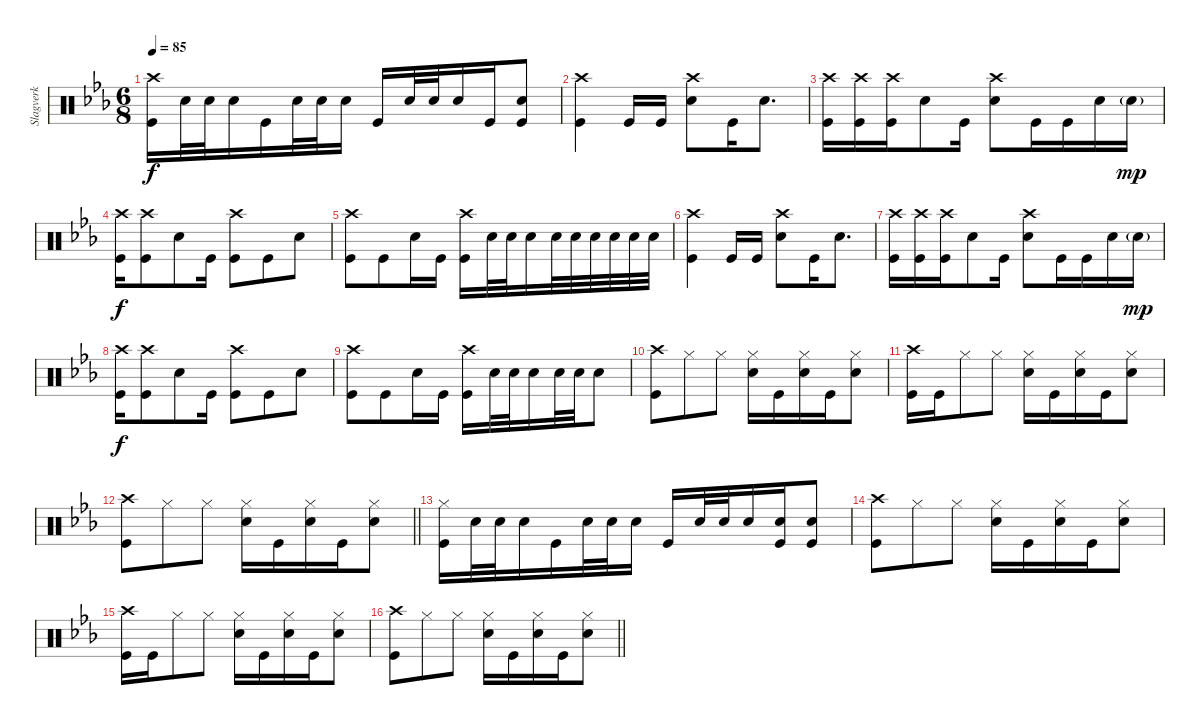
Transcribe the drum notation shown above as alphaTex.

\track ("Slagverk" "Slagverk") {instrument percussion}
\staff {score}
\articulation defaults
\ts (6 8)
\tempo 85
\clef neutral
\ks eb
("Crash high (hit)" "Kick (hit)").16{dy f} "Snare (hit) 2".32 "Snare (hit) 2".32 "Snare (hit) 2".16 "Kick (hit)".16 "Snare (hit) 2".32 "Snare (hit) 2".32 "Snare (hit) 2".16 "Kick (hit)".16 "Snare (hit) 2".32 "Snare (hit) 2".32 "Snare (hit) 2".16 "Kick (hit)".16 ("Snare (hit) 2" "Kick (hit)").8 |
("Crash high (hit)" "Kick (hit)").4 "Kick (hit)".16 "Kick (hit)".16 ("Crash high (hit)" "Snare (hit) 2").8 "Kick (hit)".16 "Snare (hit) 2".8{d} |
("Crash high (hit)" "Kick (hit)").16 ("Crash high (hit)" "Kick (hit)").16 ("Crash high (hit)" "Kick (hit)").16 "Snare (hit) 2".8 "Kick (hit)".16 ("Crash high (hit)" "Snare (hit) 2").8 "Kick (hit)".16 "Kick (hit)".16 "Snare (hit) 2".16 "Snare (hit) 2"{g}.16{dy mp} |
("Crash high (hit)" "Kick (hit)").16{dy f} ("Crash high (hit)" "Kick (hit)").8 "Snare (hit) 2".8 "Kick (hit)".16 ("Crash high (hit)" "Kick (hit)").8 "Kick (hit)".8 "Snare (hit) 2".8 |
("Crash high (hit)" "Kick (hit)").8 "Kick (hit)".8 "Snare (hit) 2".16 "Kick (hit)".16 ("Crash high (hit)" "Kick (hit)").16 "Snare (hit) 2".32 "Snare (hit) 2".32 "Snare (hit) 2".16 "Snare (hit) 2".32 "Snare (hit) 2".32 "Snare (hit) 2".32 "Snare (hit) 2".32 "Snare (hit) 2".32 "Snare (hit) 2".32 |
("Crash high (hit)" "Kick (hit)").4 "Kick (hit)".16 "Kick (hit)".16 ("Crash high (hit)" "Snare (hit) 2").8 "Kick (hit)".16 "Snare (hit) 2".8{d} |
("Crash high (hit)" "Kick (hit)").16 ("Crash high (hit)" "Kick (hit)").16 ("Crash high (hit)" "Kick (hit)").16 "Snare (hit) 2".8 "Kick (hit)".16 ("Crash high (hit)" "Snare (hit) 2").8 "Kick (hit)".16 "Kick (hit)".16 "Snare (hit) 2".16 "Snare (hit) 2"{g}.16{dy mp} |
("Crash high (hit)" "Kick (hit)").16{dy f} ("Crash high (hit)" "Kick (hit)").8 "Snare (hit) 2".8 "Kick (hit)".16 ("Crash high (hit)" "Kick (hit)").8 "Kick (hit)".8 "Snare (hit) 2".8 |
("Crash high (hit)" "Kick (hit)").8 "Kick (hit)".8 "Snare (hit) 2".16 "Kick (hit)".16 ("Crash high (hit)" "Kick (hit)").16 "Snare (hit) 2".32 "Snare (hit) 2".32 "Snare (hit) 2".16 "Snare (hit) 2".32 "Snare (hit) 2".32 "Snare (hit) 2".8 |
("Crash high (hit)" "Kick (hit)").8 "Hi-Hat (closed)".8 "Hi-Hat (closed)".8 ("Hi-Hat (closed)" "Snare (hit) 2").16 "Kick (hit)".16 ("Hi-Hat (closed)" "Snare (hit) 2").16 "Kick (hit)".16 ("Hi-Hat (closed)" "Snare (hit) 2").8 |
("Crash high (hit)" "Kick (hit)").16 "Kick (hit)".16 "Hi-Hat (closed)".8 "Hi-Hat (closed)".8 ("Hi-Hat (closed)" "Snare (hit) 2").16 "Kick (hit)".16 ("Hi-Hat (closed)" "Snare (hit) 2").16 "Kick (hit)".16 ("Hi-Hat (closed)" "Snare (hit) 2").8 |
\barLineRight lightlight
("Crash high (hit)" "Kick (hit)").8 "Hi-Hat (closed)".8 "Hi-Hat (closed)".8 ("Hi-Hat (closed)" "Snare (hit) 2").16 "Kick (hit)".16 ("Hi-Hat (closed)" "Snare (hit) 2").16 "Kick (hit)".16 ("Hi-Hat (closed)" "Snare (hit) 2").8 |
("Hi-Hat (closed)" "Kick (hit)").16 "Snare (hit) 2".32 "Snare (hit) 2".32 "Snare (hit) 2".16 "Kick (hit)".16 "Snare (hit) 2".32 "Snare (hit) 2".32 "Snare (hit) 2".16 "Kick (hit)".16 "Snare (hit) 2".32 "Snare (hit) 2".32 "Snare (hit) 2".16 ("Snare (hit) 2" "Kick (hit)").16 ("Snare (hit) 2" "Kick (hit)").8 |
("Crash high (hit)" "Kick (hit)").8 "Hi-Hat (closed)".8 "Hi-Hat (closed)".8 ("Hi-Hat (closed)" "Snare (hit) 2").16 "Kick (hit)".16 ("Hi-Hat (closed)" "Snare (hit) 2").16 "Kick (hit)".16 ("Hi-Hat (closed)" "Snare (hit) 2").8 |
("Crash high (hit)" "Kick (hit)").16 "Kick (hit)".16 "Hi-Hat (closed)".8 "Hi-Hat (closed)".8 ("Hi-Hat (closed)" "Snare (hit) 2").16 "Kick (hit)".16 ("Hi-Hat (closed)" "Snare (hit) 2").16 "Kick (hit)".16 ("Hi-Hat (closed)" "Snare (hit) 2").8 |
\barLineRight lightlight
("Crash high (hit)" "Kick (hit)").8 "Hi-Hat (closed)".8 "Hi-Hat (closed)".8 ("Hi-Hat (closed)" "Snare (hit) 2").16 "Kick (hit)".16 ("Hi-Hat (closed)" "Snare (hit) 2").16 "Kick (hit)".16 ("Hi-Hat (closed)" "Snare (hit) 2").8
